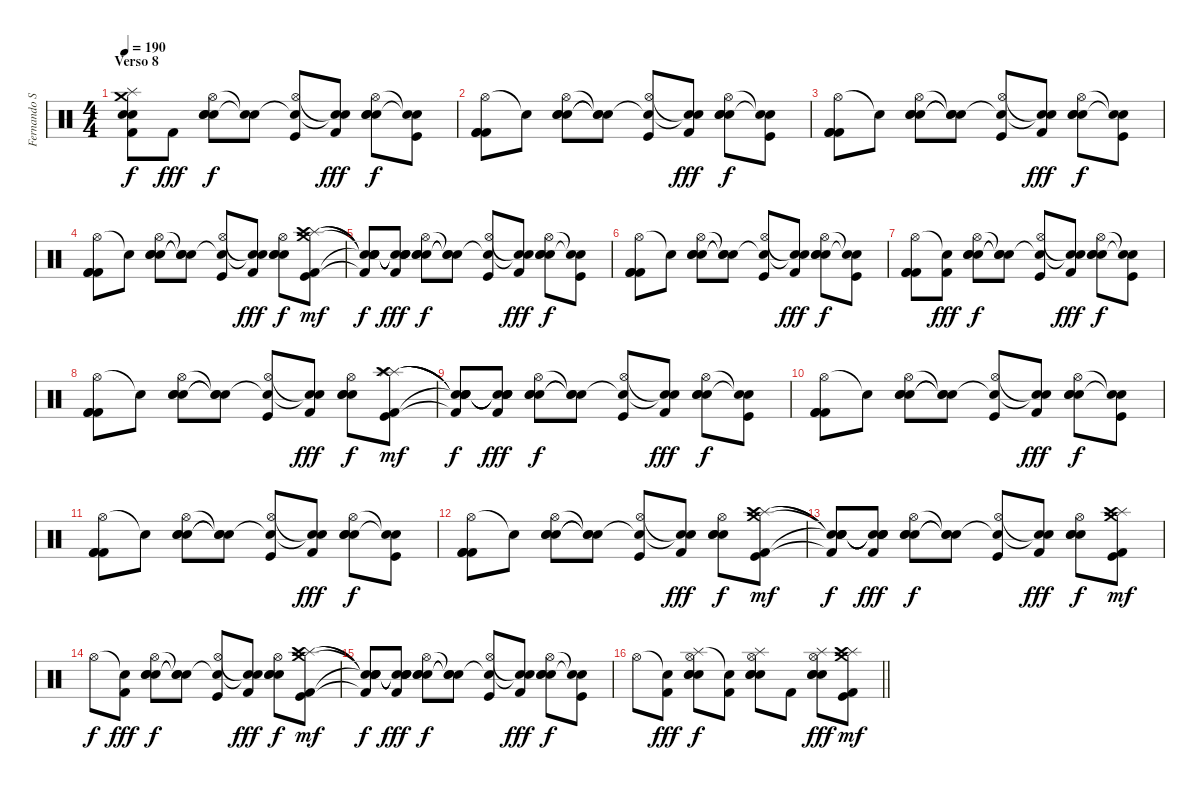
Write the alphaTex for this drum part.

\track ("Fernando Scarcella" "Fernando S") {instrument percussion}
\staff {score}
\articulation defaults
\ts (4 4)
\section ("" "Verso 8")
\tempo 190
\clef neutral
\ks c
("Crash medium (hit)"{t} "Splash (hit)"{t} "Snare (hit)"{t} "Snare (hit)"{t} "Kick (hit) 2"{t}).8{dy f} "Kick (hit) 2".8{dy fff} ("Hi-Hat (open)" "Electric Snare (hit)" "Electric Snare (hit)" "Electric Snare (hit)").8{dy f} ("Snare (hit)"{t} "Snare (hit)"{t}).8 ("Hi-Hat (open)" "Snare (hit)"{t} "Kick (hit)").8 ("Snare (hit)"{t} "Snare (hit)"{t} "Kick (hit) 2").8{dy fff} ("Hi-Hat (open)" "Electric Snare (hit)" "Electric Snare (hit)" "Electric Snare (hit)").8{dy f} ("Snare (hit)"{t} "Snare (hit)"{t} "Kick (hit)").8 |
("Hi-Hat (open)" "Kick (hit) 2" "Kick (hit) 2" "Kick (hit) 2").8 "Snare (hit)"{t}.8 ("Hi-Hat (open)" "Electric Snare (hit)" "Electric Snare (hit)" "Electric Snare (hit)").8 ("Snare (hit)"{t} "Snare (hit)"{t} "Snare (hit)"{t}).8 ("Hi-Hat (open)" "Snare (hit)"{t} "Kick (hit)").8 ("Snare (hit)"{t} "Snare (hit)"{t} "Kick (hit) 2").8{dy fff} ("Hi-Hat (open)" "Electric Snare (hit)" "Electric Snare (hit)" "Electric Snare (hit)").8{dy f} ("Snare (hit)"{t} "Snare (hit)"{t} "Kick (hit)").8 |
("Hi-Hat (open)" "Kick (hit) 2" "Kick (hit) 2" "Kick (hit) 2").8 "Snare (hit)"{t}.8 ("Hi-Hat (open)" "Electric Snare (hit)" "Electric Snare (hit)" "Electric Snare (hit)").8 ("Snare (hit)"{t} "Snare (hit)"{t} "Snare (hit)"{t}).8 ("Hi-Hat (open)" "Snare (hit)"{t} "Kick (hit)").8 ("Snare (hit)"{t} "Snare (hit)"{t} "Kick (hit) 2").8{dy fff} ("Hi-Hat (open)" "Electric Snare (hit)" "Electric Snare (hit)" "Electric Snare (hit)").8{dy f} ("Snare (hit)"{t} "Snare (hit)"{t} "Kick (hit)").8 |
("Hi-Hat (open)" "Kick (hit) 2" "Kick (hit) 2" "Kick (hit) 2").8 "Snare (hit)"{t}.8 ("Hi-Hat (open)" "Electric Snare (hit)" "Electric Snare (hit)" "Electric Snare (hit)").8 ("Snare (hit)"{t} "Snare (hit)"{t} "Snare (hit)"{t}).8 ("Hi-Hat (open)" "Snare (hit)"{t} "Kick (hit)").8 ("Snare (hit)"{t} "Snare (hit)"{t} "Kick (hit) 2").8{dy fff} ("Hi-Hat (open)" "Electric Snare (hit)" "Electric Snare (hit)" "Electric Snare (hit)").8{dy f} ("Crash medium (hit)" "Splash (hit)" "Crash high (hit)" "Kick (hit) 2" "Kick (hit)").8{dy mf} |
("Snare (hit)"{t} "Snare (hit)"{t} "Snare (hit)"{t} "Snare (hit)"{t} "Kick (hit) 2"{t}).8{dy f} ("Snare (hit)"{t} "Snare (hit)"{t} "Snare (hit)"{t} "Snare (hit)"{t} "Kick (hit) 2").8{dy fff} ("Hi-Hat (open)" "Electric Snare (hit)" "Electric Snare (hit)" "Electric Snare (hit)").8{dy f} ("Snare (hit)"{t} "Snare (hit)"{t} "Snare (hit)"{t}).8 ("Hi-Hat (open)" "Snare (hit)"{t} "Kick (hit)").8 ("Snare (hit)"{t} "Snare (hit)"{t} "Kick (hit) 2").8{dy fff} ("Hi-Hat (open)" "Electric Snare (hit)" "Electric Snare (hit)" "Electric Snare (hit)").8{dy f} ("Snare (hit)"{t} "Snare (hit)"{t} "Kick (hit)").8 |
("Hi-Hat (open)" "Kick (hit) 2" "Kick (hit) 2" "Kick (hit) 2").8 "Snare (hit)"{t}.8 ("Hi-Hat (open)" "Electric Snare (hit)" "Electric Snare (hit)" "Electric Snare (hit)").8 ("Snare (hit)"{t} "Snare (hit)"{t} "Snare (hit)"{t}).8 ("Hi-Hat (open)" "Snare (hit)"{t} "Kick (hit)").8 ("Snare (hit)"{t} "Snare (hit)"{t} "Kick (hit) 2").8{dy fff} ("Hi-Hat (open)" "Electric Snare (hit)" "Electric Snare (hit)" "Electric Snare (hit)").8{dy f} ("Snare (hit)"{t} "Snare (hit)"{t} "Kick (hit)").8 |
("Hi-Hat (open)" "Kick (hit) 2" "Kick (hit) 2" "Kick (hit) 2").8 ("Snare (hit)"{t} "Kick (hit) 2").8{dy fff} ("Hi-Hat (open)" "Electric Snare (hit)" "Electric Snare (hit)" "Electric Snare (hit)").8{dy f} ("Snare (hit)"{t} "Snare (hit)"{t} "Snare (hit)"{t}).8 ("Hi-Hat (open)" "Snare (hit)"{t} "Kick (hit)").8 ("Snare (hit)"{t} "Snare (hit)"{t} "Kick (hit) 2").8{dy fff} ("Hi-Hat (open)" "Electric Snare (hit)" "Electric Snare (hit)" "Electric Snare (hit)").8{dy f} ("Snare (hit)"{t} "Snare (hit)"{t} "Kick (hit)").8 |
("Hi-Hat (open)" "Kick (hit) 2" "Kick (hit) 2" "Kick (hit) 2").8 "Snare (hit)"{t}.8 ("Hi-Hat (open)" "Electric Snare (hit)" "Electric Snare (hit)" "Electric Snare (hit)").8 ("Snare (hit)"{t} "Snare (hit)"{t} "Snare (hit)"{t}).8 ("Hi-Hat (open)" "Snare (hit)"{t} "Kick (hit)").8 ("Snare (hit)"{t} "Snare (hit)"{t} "Kick (hit) 2").8{dy fff} ("Hi-Hat (open)" "Electric Snare (hit)" "Electric Snare (hit)" "Electric Snare (hit)").8{dy f} ("Splash (hit)" "Splash (hit)" "Crash high (hit)" "Kick (hit) 2" "Kick (hit)").8{dy mf} |
("Snare (hit)"{t} "Snare (hit)"{t} "Snare (hit)"{t} "Snare (hit)"{t} "Kick (hit) 2"{t}).8{dy f} ("Snare (hit)"{t} "Snare (hit)"{t} "Snare (hit)"{t} "Snare (hit)"{t} "Kick (hit) 2").8{dy fff} ("Hi-Hat (open)" "Electric Snare (hit)" "Electric Snare (hit)" "Electric Snare (hit)").8{dy f} ("Snare (hit)"{t} "Snare (hit)"{t} "Snare (hit)"{t}).8 ("Hi-Hat (open)" "Snare (hit)"{t} "Kick (hit)").8 ("Snare (hit)"{t} "Snare (hit)"{t} "Kick (hit) 2").8{dy fff} ("Hi-Hat (open)" "Electric Snare (hit)" "Electric Snare (hit)" "Electric Snare (hit)").8{dy f} ("Snare (hit)"{t} "Snare (hit)"{t} "Kick (hit)").8 |
("Hi-Hat (open)" "Kick (hit) 2" "Kick (hit) 2" "Kick (hit) 2").8 "Snare (hit)"{t}.8 ("Hi-Hat (open)" "Electric Snare (hit)" "Electric Snare (hit)" "Electric Snare (hit)").8 ("Snare (hit)"{t} "Snare (hit)"{t} "Snare (hit)"{t}).8 ("Hi-Hat (open)" "Snare (hit)"{t} "Kick (hit)").8 ("Snare (hit)"{t} "Snare (hit)"{t} "Kick (hit) 2").8{dy fff} ("Hi-Hat (open)" "Electric Snare (hit)" "Electric Snare (hit)" "Electric Snare (hit)").8{dy f} ("Snare (hit)"{t} "Snare (hit)"{t} "Kick (hit)").8 |
("Hi-Hat (open)" "Kick (hit) 2" "Kick (hit) 2" "Kick (hit) 2").8 "Snare (hit)"{t}.8 ("Hi-Hat (open)" "Electric Snare (hit)" "Electric Snare (hit)" "Electric Snare (hit)").8 ("Snare (hit)"{t} "Snare (hit)"{t} "Snare (hit)"{t}).8 ("Hi-Hat (open)" "Snare (hit)"{t} "Kick (hit)").8 ("Snare (hit)"{t} "Snare (hit)"{t} "Kick (hit) 2").8{dy fff} ("Hi-Hat (open)" "Electric Snare (hit)" "Electric Snare (hit)" "Electric Snare (hit)").8{dy f} ("Snare (hit)"{t} "Snare (hit)"{t} "Kick (hit)").8 |
("Hi-Hat (open)" "Kick (hit) 2" "Kick (hit) 2" "Kick (hit) 2").8 "Snare (hit)"{t}.8 ("Hi-Hat (open)" "Electric Snare (hit)" "Electric Snare (hit)" "Electric Snare (hit)").8 ("Snare (hit)"{t} "Snare (hit)"{t} "Snare (hit)"{t}).8 ("Hi-Hat (open)" "Snare (hit)"{t} "Kick (hit)").8 ("Snare (hit)"{t} "Snare (hit)"{t} "Kick (hit) 2").8{dy fff} ("Hi-Hat (open)" "Electric Snare (hit)" "Electric Snare (hit)" "Electric Snare (hit)").8{dy f} ("Crash medium (hit)" "Splash (hit)" "Crash high (hit)" "Kick (hit) 2" "Kick (hit)").8{dy mf} |
("Snare (hit)"{t} "Snare (hit)"{t} "Snare (hit)"{t} "Snare (hit)"{t} "Kick (hit) 2"{t}).8{dy f} ("Snare (hit)"{t} "Snare (hit)"{t} "Snare (hit)"{t} "Snare (hit)"{t} "Kick (hit) 2").8{dy fff} ("Hi-Hat (open)" "Electric Snare (hit)" "Electric Snare (hit)" "Electric Snare (hit)").8{dy f} ("Snare (hit)"{t} "Snare (hit)"{t} "Snare (hit)"{t}).8 ("Hi-Hat (open)" "Snare (hit)"{t} "Kick (hit)").8 ("Snare (hit)"{t} "Snare (hit)"{t} "Kick (hit) 2").8{dy fff} ("Hi-Hat (open)" "Electric Snare (hit)" "Electric Snare (hit)" "Electric Snare (hit)").8{dy f} ("Crash medium (hit)" "Splash (hit)" "Crash high (hit)" "Kick (hit) 2" "Kick (hit)").8{dy mf} |
"Hi-Hat (open)".8{dy f} ("Snare (hit)"{t} "Kick (hit) 2").8{dy fff} ("Hi-Hat (open)" "Electric Snare (hit)" "Electric Snare (hit)" "Electric Snare (hit)").8{dy f} ("Snare (hit)"{t} "Snare (hit)"{t} "Snare (hit)"{t}).8 ("Hi-Hat (open)" "Snare (hit)"{t} "Kick (hit)").8 ("Snare (hit)"{t} "Snare (hit)"{t} "Kick (hit) 2").8{dy fff} ("Hi-Hat (open)" "Electric Snare (hit)" "Electric Snare (hit)" "Electric Snare (hit)").8{dy f} ("Crash medium (hit)" "Splash (hit)" "Crash high (hit)" "Kick (hit) 2" "Kick (hit)").8{dy mf} |
("Snare (hit)"{t} "Snare (hit)"{t} "Snare (hit)"{t} "Snare (hit)"{t} "Kick (hit) 2"{t}).8{dy f} ("Snare (hit)"{t} "Snare (hit)"{t} "Snare (hit)"{t} "Snare (hit)"{t} "Kick (hit) 2").8{dy fff} ("Hi-Hat (open)" "Electric Snare (hit)" "Electric Snare (hit)" "Electric Snare (hit)").8{dy f} ("Snare (hit)"{t} "Snare (hit)"{t} "Snare (hit)"{t}).8 ("Hi-Hat (open)" "Snare (hit)"{t} "Kick (hit)").8 ("Snare (hit)"{t} "Snare (hit)"{t} "Kick (hit) 2").8{dy fff} ("Hi-Hat (open)" "Electric Snare (hit)" "Electric Snare (hit)" "Electric Snare (hit)").8{dy f} ("Snare (hit)"{t} "Snare (hit)"{t} "Kick (hit)").8 |
\barLineRight lightlight "Hi-Hat (open)".8
("Snare (hit)"{t} "Kick (hit) 2").8{dy fff} ("Splash (hit)" "Hi-Hat (open)" "Electric Snare (hit)" "Electric Snare (hit)" "Electric Snare (hit)").8{dy f} ("Snare (hit)"{t} "Kick (hit) 2").8 ("Splash (hit)" "Electric Snare (hit)" "Hi-Hat (open)" "Electric Snare (hit)" "Electric Snare (hit)").8 "Kick (hit) 2".8 ("Splash (hit)" "Electric Snare (hit)" "Hi-Hat (open)" "Electric Snare (hit)" "Electric Snare (hit)").8{dy fff} ("Crash medium (hit)" "Splash (hit)" "Crash high (hit)" "Kick (hit) 2" "Kick (hit)").8{dy mf}
